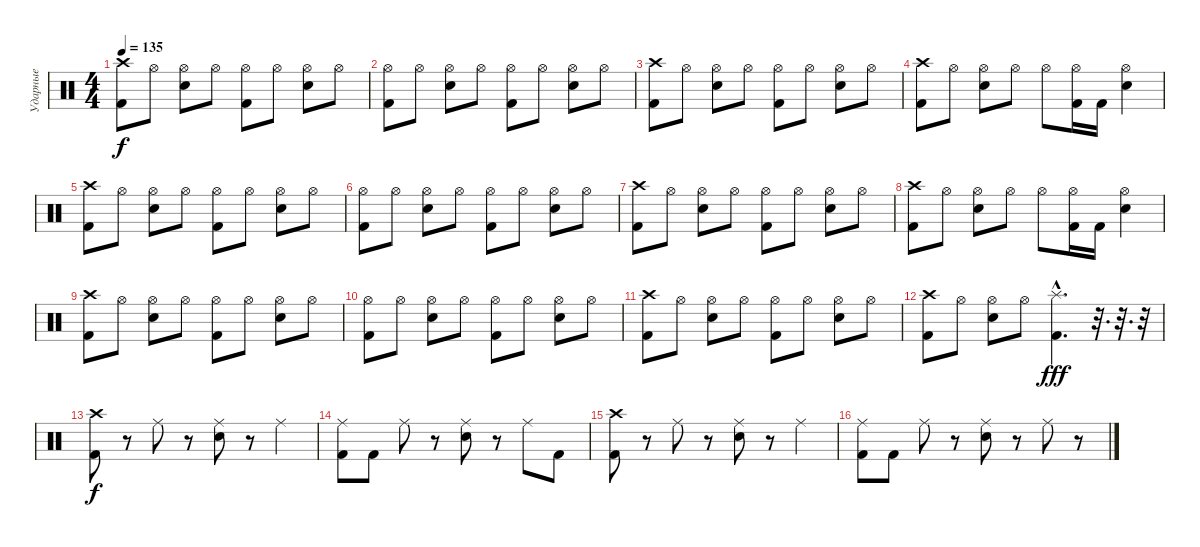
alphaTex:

\track ("Ударные" "Ударные") {instrument percussion}
\staff {score}
\articulation defaults
\ts (4 4)
\tempo 135
\clef neutral
\ks c
("Crash high (hit)" "Kick (hit) 2").8{dy f} "Hi-Hat (open)".8 ("Hi-Hat (open)" "Electric Snare (hit)").8 "Hi-Hat (open)".8 ("Hi-Hat (open)" "Kick (hit) 2").8 "Hi-Hat (open)".8 ("Hi-Hat (open)" "Electric Snare (hit)").8 "Hi-Hat (open)".8 |
("Hi-Hat (open)" "Kick (hit) 2").8 "Hi-Hat (open)".8 ("Hi-Hat (open)" "Electric Snare (hit)").8 "Hi-Hat (open)".8 ("Hi-Hat (open)" "Kick (hit) 2").8 "Hi-Hat (open)".8 ("Hi-Hat (open)" "Electric Snare (hit)").8 "Hi-Hat (open)".8 |
("Crash high (hit)" "Kick (hit) 2").8 "Hi-Hat (open)".8 ("Hi-Hat (open)" "Electric Snare (hit)").8 "Hi-Hat (open)".8 ("Hi-Hat (open)" "Kick (hit) 2").8 "Hi-Hat (open)".8 ("Hi-Hat (open)" "Electric Snare (hit)").8 "Hi-Hat (open)".8 |
("Crash high (hit)" "Kick (hit) 2").8 "Hi-Hat (open)".8 ("Hi-Hat (open)" "Electric Snare (hit)").8 "Hi-Hat (open)".8 "Hi-Hat (open)".8 ("Hi-Hat (open)" "Kick (hit) 2").16 "Kick (hit) 2".16 ("Hi-Hat (open)" "Electric Snare (hit)").4 |
("Crash high (hit)" "Kick (hit) 2").8 "Hi-Hat (open)".8 ("Hi-Hat (open)" "Electric Snare (hit)").8 "Hi-Hat (open)".8 ("Hi-Hat (open)" "Kick (hit) 2").8 "Hi-Hat (open)".8 ("Hi-Hat (open)" "Electric Snare (hit)").8 "Hi-Hat (open)".8 |
("Hi-Hat (open)" "Kick (hit) 2").8 "Hi-Hat (open)".8 ("Hi-Hat (open)" "Electric Snare (hit)").8 "Hi-Hat (open)".8 ("Hi-Hat (open)" "Kick (hit) 2").8 "Hi-Hat (open)".8 ("Hi-Hat (open)" "Electric Snare (hit)").8 "Hi-Hat (open)".8 |
("Crash high (hit)" "Kick (hit) 2").8 "Hi-Hat (open)".8 ("Hi-Hat (open)" "Electric Snare (hit)").8 "Hi-Hat (open)".8 ("Hi-Hat (open)" "Kick (hit) 2").8 "Hi-Hat (open)".8 ("Hi-Hat (open)" "Electric Snare (hit)").8 "Hi-Hat (open)".8 |
("Crash high (hit)" "Kick (hit) 2").8 "Hi-Hat (open)".8 ("Hi-Hat (open)" "Electric Snare (hit)").8 "Hi-Hat (open)".8 "Hi-Hat (open)".8 ("Hi-Hat (open)" "Kick (hit) 2").16 "Kick (hit) 2".16 ("Hi-Hat (open)" "Electric Snare (hit)").4 |
("Crash high (hit)" "Kick (hit) 2").8 "Hi-Hat (open)".8 ("Hi-Hat (open)" "Electric Snare (hit)").8 "Hi-Hat (open)".8 ("Hi-Hat (open)" "Kick (hit) 2").8 "Hi-Hat (open)".8 ("Hi-Hat (open)" "Electric Snare (hit)").8 "Hi-Hat (open)".8 |
("Hi-Hat (open)" "Kick (hit) 2").8 "Hi-Hat (open)".8 ("Hi-Hat (open)" "Electric Snare (hit)").8 "Hi-Hat (open)".8 ("Hi-Hat (open)" "Kick (hit) 2").8 "Hi-Hat (open)".8 ("Hi-Hat (open)" "Electric Snare (hit)").8 "Hi-Hat (open)".8 |
("Crash high (hit)" "Kick (hit) 2").8 "Hi-Hat (open)".8 ("Hi-Hat (open)" "Electric Snare (hit)").8 "Hi-Hat (open)".8 ("Hi-Hat (open)" "Kick (hit) 2").8 "Hi-Hat (open)".8 ("Hi-Hat (open)" "Electric Snare (hit)").8 "Hi-Hat (open)".8 |
("Crash high (hit)" "Kick (hit) 2").8 "Hi-Hat (open)".8 ("Hi-Hat (open)" "Electric Snare (hit)").8 "Hi-Hat (open)".8 ("Splash (hit)"{hac} "Kick (hit) 2"{hac}).4{d dy fff} r.32{d} r.32{d} r.32 |
("Crash high (hit)" "Kick (hit) 2").8{dy f} r.8 "Ride (middle)".8 r.8 ("Ride (middle)" "Electric Snare (hit)").8 r.8 "Ride (middle)".4 |
("Ride (middle)" "Kick (hit) 2").8 "Kick (hit) 2".8 "Ride (middle)".8 r.8 ("Ride (middle)" "Electric Snare (hit)").8 r.8 "Ride (middle)".8 "Kick (hit) 2".8 |
("Crash high (hit)" "Kick (hit) 2").8 r.8 "Ride (middle)".8 r.8 ("Ride (middle)" "Electric Snare (hit)").8 r.8 "Ride (middle)".4 |
("Ride (middle)" "Kick (hit) 2").8 "Kick (hit) 2".8 "Ride (middle)".8 r.8 ("Ride (middle)" "Electric Snare (hit)").8 r.8 "Ride (middle)".8 r.8
